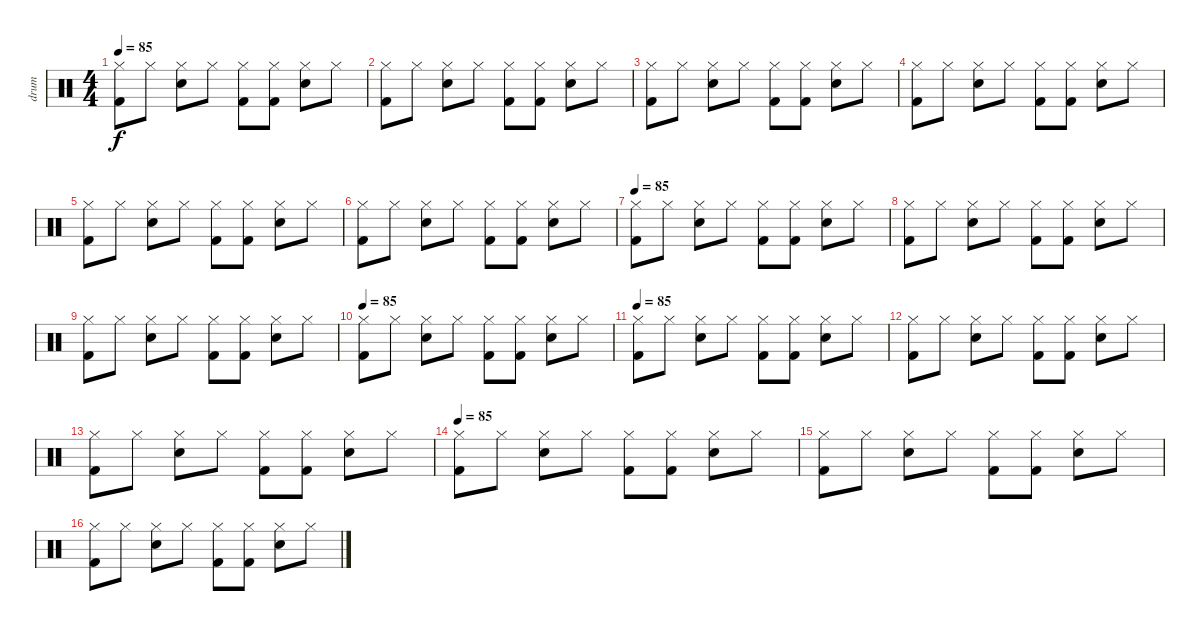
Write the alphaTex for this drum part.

\track ("drum" "drum") {instrument percussion}
\staff {score}
\articulation defaults
\ts (4 4)
\tempo 85
\clef neutral
\ks c
("Hi-Hat (closed)" "Kick (hit) 2").8{dy f} "Hi-Hat (closed)".8 ("Hi-Hat (closed)" "Snare (hit) 2").8 "Hi-Hat (closed)".8 ("Hi-Hat (closed)" "Kick (hit) 2").8 ("Hi-Hat (closed)" "Kick (hit) 2").8 ("Hi-Hat (closed)" "Snare (hit) 2").8 "Hi-Hat (closed)".8 |
("Hi-Hat (closed)" "Kick (hit) 2").8 "Hi-Hat (closed)".8 ("Hi-Hat (closed)" "Snare (hit) 2").8 "Hi-Hat (closed)".8 ("Hi-Hat (closed)" "Kick (hit) 2").8 ("Hi-Hat (closed)" "Kick (hit) 2").8 ("Hi-Hat (closed)" "Snare (hit) 2").8 "Hi-Hat (closed)".8 |
("Hi-Hat (closed)" "Kick (hit) 2").8 "Hi-Hat (closed)".8 ("Hi-Hat (closed)" "Snare (hit) 2").8 "Hi-Hat (closed)".8 ("Hi-Hat (closed)" "Kick (hit) 2").8 ("Hi-Hat (closed)" "Kick (hit) 2").8 ("Hi-Hat (closed)" "Snare (hit) 2").8 "Hi-Hat (closed)".8 |
("Hi-Hat (closed)" "Kick (hit) 2").8 "Hi-Hat (closed)".8 ("Hi-Hat (closed)" "Snare (hit) 2").8 "Hi-Hat (closed)".8 ("Hi-Hat (closed)" "Kick (hit) 2").8 ("Hi-Hat (closed)" "Kick (hit) 2").8 ("Hi-Hat (closed)" "Snare (hit) 2").8 "Hi-Hat (closed)".8 |
("Hi-Hat (closed)" "Kick (hit) 2").8 "Hi-Hat (closed)".8 ("Hi-Hat (closed)" "Snare (hit) 2").8 "Hi-Hat (closed)".8 ("Hi-Hat (closed)" "Kick (hit) 2").8 ("Hi-Hat (closed)" "Kick (hit) 2").8 ("Hi-Hat (closed)" "Snare (hit) 2").8 "Hi-Hat (closed)".8 |
("Hi-Hat (closed)" "Kick (hit) 2").8 "Hi-Hat (closed)".8 ("Hi-Hat (closed)" "Snare (hit) 2").8 "Hi-Hat (closed)".8 ("Hi-Hat (closed)" "Kick (hit) 2").8 ("Hi-Hat (closed)" "Kick (hit) 2").8 ("Hi-Hat (closed)" "Snare (hit) 2").8 "Hi-Hat (closed)".8 |
\tempo 85
("Hi-Hat (closed)" "Kick (hit) 2").8 "Hi-Hat (closed)".8 ("Hi-Hat (closed)" "Snare (hit) 2").8 "Hi-Hat (closed)".8 ("Hi-Hat (closed)" "Kick (hit) 2").8 ("Hi-Hat (closed)" "Kick (hit) 2").8 ("Hi-Hat (closed)" "Snare (hit) 2").8 "Hi-Hat (closed)".8 |
("Hi-Hat (closed)" "Kick (hit) 2").8 "Hi-Hat (closed)".8 ("Hi-Hat (closed)" "Snare (hit) 2").8 "Hi-Hat (closed)".8 ("Hi-Hat (closed)" "Kick (hit) 2").8 ("Hi-Hat (closed)" "Kick (hit) 2").8 ("Hi-Hat (closed)" "Snare (hit) 2").8 "Hi-Hat (closed)".8 |
("Hi-Hat (closed)" "Kick (hit) 2").8 "Hi-Hat (closed)".8 ("Hi-Hat (closed)" "Snare (hit) 2").8 "Hi-Hat (closed)".8 ("Hi-Hat (closed)" "Kick (hit) 2").8 ("Hi-Hat (closed)" "Kick (hit) 2").8 ("Hi-Hat (closed)" "Snare (hit) 2").8 "Hi-Hat (closed)".8 |
\tempo 85
("Hi-Hat (closed)" "Kick (hit) 2").8 "Hi-Hat (closed)".8 ("Hi-Hat (closed)" "Snare (hit) 2").8 "Hi-Hat (closed)".8 ("Hi-Hat (closed)" "Kick (hit) 2").8 ("Hi-Hat (closed)" "Kick (hit) 2").8 ("Hi-Hat (closed)" "Snare (hit) 2").8 "Hi-Hat (closed)".8 |
\tempo 85
("Hi-Hat (closed)" "Kick (hit) 2").8 "Hi-Hat (closed)".8 ("Hi-Hat (closed)" "Snare (hit) 2").8 "Hi-Hat (closed)".8 ("Hi-Hat (closed)" "Kick (hit) 2").8 ("Hi-Hat (closed)" "Kick (hit) 2").8 ("Hi-Hat (closed)" "Snare (hit) 2").8 "Hi-Hat (closed)".8 |
("Hi-Hat (closed)" "Kick (hit) 2").8 "Hi-Hat (closed)".8 ("Hi-Hat (closed)" "Snare (hit) 2").8 "Hi-Hat (closed)".8 ("Hi-Hat (closed)" "Kick (hit) 2").8 ("Hi-Hat (closed)" "Kick (hit) 2").8 ("Hi-Hat (closed)" "Snare (hit) 2").8 "Hi-Hat (closed)".8 |
("Hi-Hat (closed)" "Kick (hit) 2").8 "Hi-Hat (closed)".8 ("Hi-Hat (closed)" "Snare (hit) 2").8 "Hi-Hat (closed)".8 ("Hi-Hat (closed)" "Kick (hit) 2").8 ("Hi-Hat (closed)" "Kick (hit) 2").8 ("Hi-Hat (closed)" "Snare (hit) 2").8 "Hi-Hat (closed)".8 |
\tempo 85
("Hi-Hat (closed)" "Kick (hit) 2").8 "Hi-Hat (closed)".8 ("Hi-Hat (closed)" "Snare (hit) 2").8 "Hi-Hat (closed)".8 ("Hi-Hat (closed)" "Kick (hit) 2").8 ("Hi-Hat (closed)" "Kick (hit) 2").8 ("Hi-Hat (closed)" "Snare (hit) 2").8 "Hi-Hat (closed)".8 |
("Hi-Hat (closed)" "Kick (hit) 2").8 "Hi-Hat (closed)".8 ("Hi-Hat (closed)" "Snare (hit) 2").8 "Hi-Hat (closed)".8 ("Hi-Hat (closed)" "Kick (hit) 2").8 ("Hi-Hat (closed)" "Kick (hit) 2").8 ("Hi-Hat (closed)" "Snare (hit) 2").8 "Hi-Hat (closed)".8 |
("Hi-Hat (closed)" "Kick (hit) 2").8 "Hi-Hat (closed)".8 ("Hi-Hat (closed)" "Snare (hit) 2").8 "Hi-Hat (closed)".8 ("Hi-Hat (closed)" "Kick (hit) 2").8 ("Hi-Hat (closed)" "Kick (hit) 2").8 ("Hi-Hat (closed)" "Snare (hit) 2").8 "Hi-Hat (closed)".8
